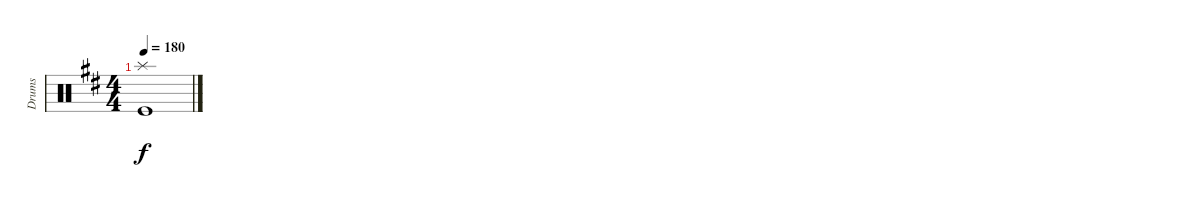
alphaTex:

\track ("Drums" "Drums") {instrument percussion}
\staff {score}
\articulation defaults
\ts (4 4)
\tempo 180
\clef neutral
\ks d
("Kick (hit)" "Splash (hit)").1{dy f}
